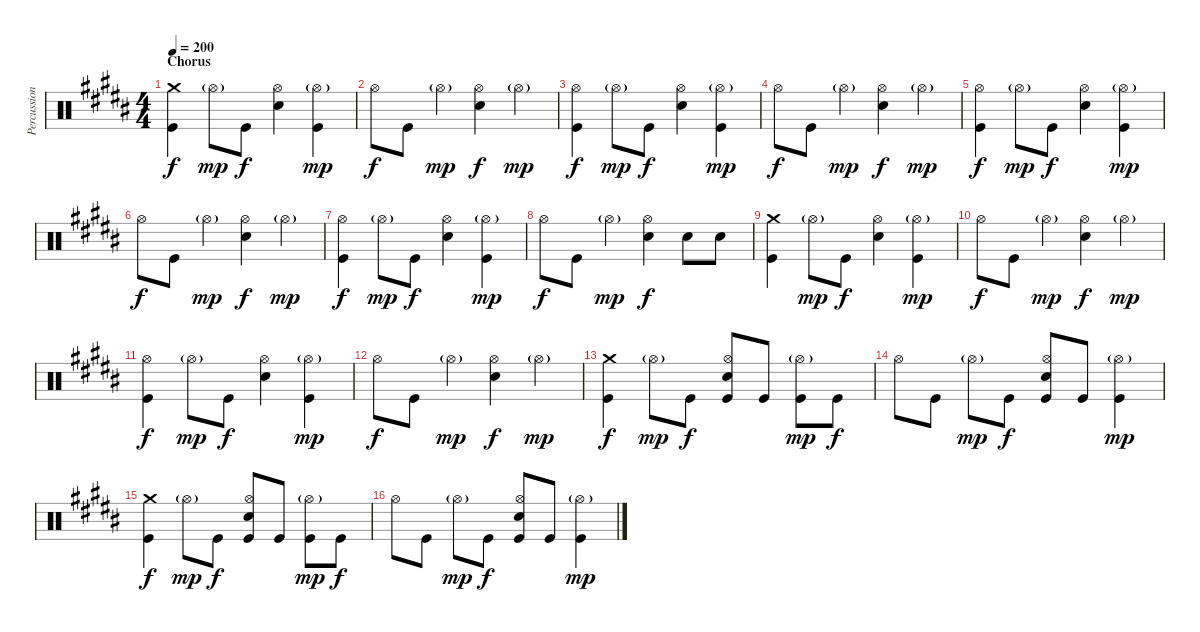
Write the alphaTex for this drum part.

\track ("Percussion" "Percussion") {instrument percussion}
\staff {score}
\articulation defaults
\ts (4 4)
\section ("" "Chorus")
\tempo 200
\clef neutral
\ks b
("Crash medium (hit)" "Kick (hit)").4{dy f} "Hi-Hat (open)"{g}.8{dy mp} "Kick (hit)".8{dy f} ("Hi-Hat (open)" "Electric Snare (hit)").4 ("Hi-Hat (open)"{g} "Kick (hit)").4{dy mp} |
"Hi-Hat (open)".8{dy f} "Kick (hit)".8 "Hi-Hat (open)"{g}.4{dy mp} ("Hi-Hat (open)" "Electric Snare (hit)").4{dy f} "Hi-Hat (open)"{g}.4{dy mp} |
("Hi-Hat (open)" "Kick (hit)").4{dy f} "Hi-Hat (open)"{g}.8{dy mp} "Kick (hit)".8{dy f} ("Hi-Hat (open)" "Electric Snare (hit)").4 ("Hi-Hat (open)"{g} "Kick (hit)").4{dy mp} |
"Hi-Hat (open)".8{dy f} "Kick (hit)".8 "Hi-Hat (open)"{g}.4{dy mp} ("Hi-Hat (open)" "Electric Snare (hit)").4{dy f} "Hi-Hat (open)"{g}.4{dy mp} |
("Hi-Hat (open)" "Kick (hit)").4{dy f} "Hi-Hat (open)"{g}.8{dy mp} "Kick (hit)".8{dy f} ("Hi-Hat (open)" "Electric Snare (hit)").4 ("Hi-Hat (open)"{g} "Kick (hit)").4{dy mp} |
"Hi-Hat (open)".8{dy f} "Kick (hit)".8 "Hi-Hat (open)"{g}.4{dy mp} ("Hi-Hat (open)" "Electric Snare (hit)").4{dy f} "Hi-Hat (open)"{g}.4{dy mp} |
("Hi-Hat (open)" "Kick (hit)").4{dy f} "Hi-Hat (open)"{g}.8{dy mp} "Kick (hit)".8{dy f} ("Hi-Hat (open)" "Electric Snare (hit)").4 ("Hi-Hat (open)"{g} "Kick (hit)").4{dy mp} |
"Hi-Hat (open)".8{dy f} "Kick (hit)".8 "Hi-Hat (open)"{g}.4{dy mp} ("Hi-Hat (open)" "Electric Snare (hit)").4{dy f} "Electric Snare (hit)".8 "Electric Snare (hit)".8 |
("Crash medium (hit)" "Kick (hit)").4 "Hi-Hat (open)"{g}.8{dy mp} "Kick (hit)".8{dy f} ("Hi-Hat (open)" "Electric Snare (hit)").4 ("Hi-Hat (open)"{g} "Kick (hit)").4{dy mp} |
"Hi-Hat (open)".8{dy f} "Kick (hit)".8 "Hi-Hat (open)"{g}.4{dy mp} ("Hi-Hat (open)" "Electric Snare (hit)").4{dy f} "Hi-Hat (open)"{g}.4{dy mp} |
("Hi-Hat (open)" "Kick (hit)").4{dy f} "Hi-Hat (open)"{g}.8{dy mp} "Kick (hit)".8{dy f} ("Hi-Hat (open)" "Electric Snare (hit)").4 ("Hi-Hat (open)"{g} "Kick (hit)").4{dy mp} |
"Hi-Hat (open)".8{dy f} "Kick (hit)".8 "Hi-Hat (open)"{g}.4{dy mp} ("Hi-Hat (open)" "Electric Snare (hit)").4{dy f} "Hi-Hat (open)"{g}.4{dy mp} |
("Crash medium (hit)" "Kick (hit)").4{dy f} "Hi-Hat (open)"{g}.8{dy mp} "Kick (hit)".8{dy f} ("Hi-Hat (open)" "Electric Snare (hit)" "Kick (hit)").8 "Kick (hit)".8 ("Hi-Hat (open)"{g} "Kick (hit)").8{dy mp} "Kick (hit)".8{dy f} |
"Hi-Hat (open)".8 "Kick (hit)".8 "Hi-Hat (open)"{g}.8{dy mp} "Kick (hit)".8{dy f} ("Hi-Hat (open)" "Electric Snare (hit)" "Kick (hit)").8 "Kick (hit)".8 ("Hi-Hat (open)"{g} "Kick (hit)").4{dy mp} |
("Crash medium (hit)" "Kick (hit)").4{dy f} "Hi-Hat (open)"{g}.8{dy mp} "Kick (hit)".8{dy f} ("Hi-Hat (open)" "Electric Snare (hit)" "Kick (hit)").8 "Kick (hit)".8 ("Hi-Hat (open)"{g} "Kick (hit)").8{dy mp} "Kick (hit)".8{dy f} |
"Hi-Hat (open)".8 "Kick (hit)".8 "Hi-Hat (open)"{g}.8{dy mp} "Kick (hit)".8{dy f} ("Hi-Hat (open)" "Electric Snare (hit)" "Kick (hit)").8 "Kick (hit)".8 ("Hi-Hat (open)"{g} "Kick (hit)").4{dy mp}
